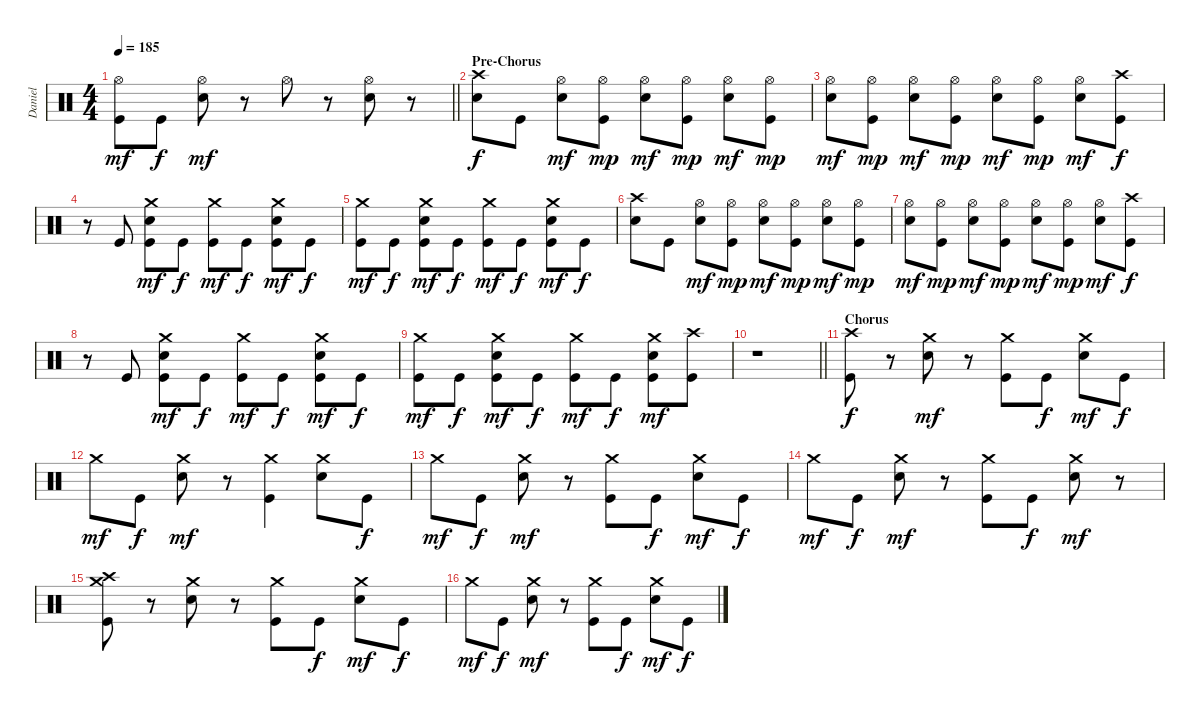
\track ("Daniel" "Daniel") {instrument percussion}
\staff {score}
\articulation defaults
\ts (4 4)
\tempo 185
\clef neutral
\barLineRight lightlight
\ks c
("Kick (hit)" "Hi-Hat (open)").8{dy mf} "Kick (hit)".8{dy f} ("Electric Snare (hit)" "Hi-Hat (open)").8{dy mf} r.8 "Hi-Hat (open)".8 r.8 ("Electric Snare (hit)" "Hi-Hat (open)").8 r.8 |
\section ("" "Pre-Chorus")
("Electric Snare (hit)" "Crash high (hit)").8{dy f} "Kick (hit)".8 ("Electric Snare (hit)" "Hi-Hat (open)").8{dy mf} ("Kick (hit)" "Hi-Hat (open)").8{dy mp} ("Electric Snare (hit)" "Hi-Hat (open)").8{dy mf} ("Kick (hit)" "Hi-Hat (open)").8{dy mp} ("Electric Snare (hit)" "Hi-Hat (open)").8{dy mf} ("Kick (hit)" "Hi-Hat (open)").8{dy mp} |
("Electric Snare (hit)" "Hi-Hat (open)").8{dy mf} ("Kick (hit)" "Hi-Hat (open)").8{dy mp} ("Electric Snare (hit)" "Hi-Hat (open)").8{dy mf} ("Kick (hit)" "Hi-Hat (open)").8{dy mp} ("Electric Snare (hit)" "Hi-Hat (open)").8{dy mf} ("Kick (hit)" "Hi-Hat (open)").8{dy mp} ("Electric Snare (hit)" "Hi-Hat (open)").8{dy mf} ("Kick (hit)" "Crash high (hit)").8{dy f} |
r.8 "Kick (hit)".8 ("Kick (hit)" "Electric Snare (hit)" "Crash medium (hit)").8{dy mf} "Kick (hit)".8{dy f} ("Kick (hit)" "Crash medium (hit)").8{dy mf} "Kick (hit)".8{dy f} ("Kick (hit)" "Electric Snare (hit)" "Crash medium (hit)").8{dy mf} "Kick (hit)".8{dy f} |
("Kick (hit)" "Crash medium (hit)").8{dy mf} "Kick (hit)".8{dy f} ("Kick (hit)" "Electric Snare (hit)" "Crash medium (hit)").8{dy mf} "Kick (hit)".8{dy f} ("Kick (hit)" "Crash medium (hit)").8{dy mf} "Kick (hit)".8{dy f} ("Kick (hit)" "Electric Snare (hit)" "Crash medium (hit)").8{dy mf} "Kick (hit)".8{dy f} |
("Electric Snare (hit)" "Crash high (hit)").8 "Kick (hit)".8 ("Electric Snare (hit)" "Hi-Hat (open)").8{dy mf} ("Kick (hit)" "Hi-Hat (open)").8{dy mp} ("Electric Snare (hit)" "Hi-Hat (open)").8{dy mf} ("Kick (hit)" "Hi-Hat (open)").8{dy mp} ("Electric Snare (hit)" "Hi-Hat (open)").8{dy mf} ("Kick (hit)" "Hi-Hat (open)").8{dy mp} |
("Electric Snare (hit)" "Hi-Hat (open)").8{dy mf} ("Kick (hit)" "Hi-Hat (open)").8{dy mp} ("Electric Snare (hit)" "Hi-Hat (open)").8{dy mf} ("Kick (hit)" "Hi-Hat (open)").8{dy mp} ("Electric Snare (hit)" "Hi-Hat (open)").8{dy mf} ("Kick (hit)" "Hi-Hat (open)").8{dy mp} ("Electric Snare (hit)" "Hi-Hat (open)").8{dy mf} ("Kick (hit)" "Crash high (hit)").8{dy f} |
r.8 "Kick (hit)".8 ("Kick (hit)" "Electric Snare (hit)" "Crash medium (hit)").8{dy mf} "Kick (hit)".8{dy f} ("Kick (hit)" "Crash medium (hit)").8{dy mf} "Kick (hit)".8{dy f} ("Kick (hit)" "Electric Snare (hit)" "Crash medium (hit)").8{dy mf} "Kick (hit)".8{dy f} |
("Kick (hit)" "Crash medium (hit)").8{dy mf} "Kick (hit)".8{dy f} ("Kick (hit)" "Electric Snare (hit)" "Crash medium (hit)").8{dy mf} "Kick (hit)".8{dy f} ("Kick (hit)" "Crash medium (hit)").8{dy mf} "Kick (hit)".8{dy f} ("Kick (hit)" "Electric Snare (hit)" "Crash medium (hit)").8{dy mf} ("Kick (hit)" "Crash high (hit)").8 |
\barLineRight lightlight
r.1 |
\section ("" "Chorus")
("Kick (hit)" "Crash high (hit)").8{dy f} r.8 ("Electric Snare (hit)" "Crash medium (hit)").8{dy mf} r.8 ("Kick (hit)" "Crash medium (hit)").8 "Kick (hit)".8{dy f} ("Electric Snare (hit)" "Crash medium (hit)").8{dy mf} "Kick (hit)".8{dy f} |
"Crash medium (hit)".8{dy mf} "Kick (hit)".8{dy f} ("Electric Snare (hit)" "Crash medium (hit)").8{dy mf} r.8 ("Kick (hit)" "Crash medium (hit)").4 ("Electric Snare (hit)" "Crash medium (hit)").8 "Kick (hit)".8{dy f} |
"Crash medium (hit)".8{dy mf} "Kick (hit)".8{dy f} ("Electric Snare (hit)" "Crash medium (hit)").8{dy mf} r.8 ("Kick (hit)" "Crash medium (hit)").8 "Kick (hit)".8{dy f} ("Electric Snare (hit)" "Crash medium (hit)").8{dy mf} "Kick (hit)".8{dy f} |
"Crash medium (hit)".8{dy mf} "Kick (hit)".8{dy f} ("Electric Snare (hit)" "Crash medium (hit)").8{dy mf} r.8 ("Kick (hit)" "Crash medium (hit)").8 "Kick (hit)".8{dy f} ("Electric Snare (hit)" "Crash medium (hit)").8{dy mf} r.8 |
("Kick (hit)" "Crash medium (hit)" "Crash high (hit)").8 r.8 ("Electric Snare (hit)" "Crash medium (hit)").8 r.8 ("Kick (hit)" "Crash medium (hit)").8 "Kick (hit)".8{dy f} ("Electric Snare (hit)" "Crash medium (hit)").8{dy mf} "Kick (hit)".8{dy f} |
"Crash medium (hit)".8{dy mf} "Kick (hit)".8{dy f} ("Electric Snare (hit)" "Crash medium (hit)").8{dy mf} r.8 ("Kick (hit)" "Crash medium (hit)").8 "Kick (hit)".8{dy f} ("Electric Snare (hit)" "Crash medium (hit)").8{dy mf} "Kick (hit)".8{dy f}
